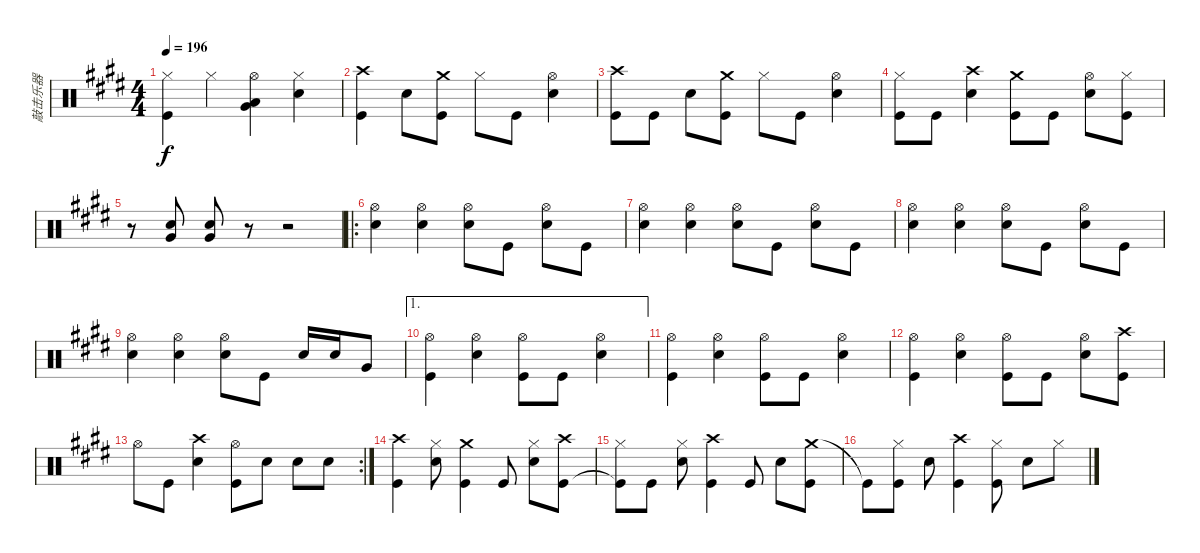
\track ("敲击乐器" "敲击乐器") {instrument percussion}
\staff {score}
\articulation defaults
\ts (4 4)
\tempo 196
\clef neutral
\ks c#minor
("Hi-Hat (closed)" "Kick (hit)").4{dy f} "Hi-Hat (closed)".4 ("Hi-Hat (open)" "Low Tom (hit)" "Very Low Tom (hit)").4 ("Hi-Hat (closed)" "Snare (hit) 2").4 |
\ks e
("Crash high (hit)" "Kick (hit)").4 "Snare (hit) 2".8 ("Crash medium (hit)" "Kick (hit)").8 "Hi-Hat (closed)".8 "Kick (hit)".8 ("Hi-Hat (open)" "Snare (hit) 2").4 |
\ks c#minor
("Crash high (hit)" "Kick (hit)").8 "Kick (hit)".8 "Snare (hit) 2".8 ("Crash medium (hit)" "Kick (hit)").8 "Hi-Hat (closed)".8 "Kick (hit)".8 ("Hi-Hat (open)" "Snare (hit) 2").4 |
("Hi-Hat (closed)" "Kick (hit)").8 "Kick (hit)".8 ("Crash high (hit)" "Snare (hit) 2").4 ("Crash medium (hit)" "Kick (hit)").8 "Kick (hit)".8 ("Hi-Hat (open)" "Snare (hit) 2").8 ("Hi-Hat (closed)" "Kick (hit)").8 |
r.8 ("Snare (hit) 2" "Very Low Tom (hit)").8 ("Snare (hit) 2" "Very Low Tom (hit)").8 r.8 r.2 |
\ro
\ks e
("Hi-Hat (open)" "Snare (hit) 2").4 ("Hi-Hat (open)" "Snare (hit) 2").4 ("Hi-Hat (open)" "Snare (hit) 2").8 "Kick (hit)".8 ("Hi-Hat (open)" "Snare (hit) 2").8 "Kick (hit)".8 |
\ks c#minor
("Hi-Hat (open)" "Snare (hit) 2").4 ("Hi-Hat (open)" "Snare (hit) 2").4 ("Hi-Hat (open)" "Snare (hit) 2").8 "Kick (hit)".8 ("Hi-Hat (open)" "Snare (hit) 2").8 "Kick (hit)".8 |
("Hi-Hat (open)" "Snare (hit) 2").4 ("Hi-Hat (open)" "Snare (hit) 2").4 ("Hi-Hat (open)" "Snare (hit) 2").8 "Kick (hit)".8 ("Hi-Hat (open)" "Snare (hit) 2").8 "Kick (hit)".8 |
("Hi-Hat (open)" "Snare (hit) 2").4 ("Hi-Hat (open)" "Snare (hit) 2").4 ("Hi-Hat (open)" "Snare (hit) 2").8 "Kick (hit)".8 "Snare (hit) 2".16 "Snare (hit) 2".16 "Very Low Tom (hit)".8 |
\ae 1
\ks e
("Hi-Hat (open)" "Kick (hit)").4 ("Hi-Hat (open)" "Snare (hit) 2").4 ("Hi-Hat (open)" "Kick (hit)").8 "Kick (hit)".8 ("Hi-Hat (open)" "Snare (hit) 2").4 |
\ks c#minor
("Hi-Hat (open)" "Kick (hit)").4 ("Hi-Hat (open)" "Snare (hit) 2").4 ("Hi-Hat (open)" "Kick (hit)").8 "Kick (hit)".8 ("Hi-Hat (open)" "Snare (hit) 2").4 |
("Hi-Hat (open)" "Kick (hit)").4 ("Hi-Hat (open)" "Snare (hit) 2").4 ("Hi-Hat (open)" "Kick (hit)").8 "Kick (hit)".8 ("Hi-Hat (open)" "Snare (hit) 2").8 ("Crash high (hit)" "Kick (hit)").8 |
\rc 2 "Hi-Hat (open)".8 "Kick (hit)".8
("Crash high (hit)" "Snare (hit) 2").4 ("Hi-Hat (open)" "Kick (hit)").8 "Snare (hit) 2".8 "Snare (hit) 2".8 "Snare (hit) 2".8 |
\ks e
("Crash high (hit)" "Kick (hit)").4 ("Hi-Hat (closed)" "Snare (hit) 2").8 ("Crash medium (hit)" "Kick (hit)").4 "Kick (hit)".8 ("Hi-Hat (closed)" "Snare (hit) 2").8 ("Crash high (hit)" "Kick (hit)").8 |
\ks c#minor
("Hi-Hat (closed)" "Kick (hit)"{t}).8 "Kick (hit)".8 ("Hi-Hat (closed)" "Snare (hit) 2").8 ("Crash high (hit)" "Kick (hit)").4 "Kick (hit)".8 "Snare (hit) 2".8 ("Crash medium (hit)" "Kick (hit)").8 |
"Kick (hit)"{t}.8 ("Hi-Hat (closed)" "Kick (hit)").8 "Snare (hit) 2".8 ("Crash high (hit)" "Kick (hit)").4 ("Hi-Hat (closed)" "Kick (hit)").8 "Snare (hit) 2".8 "Hi-Hat (closed)".8
